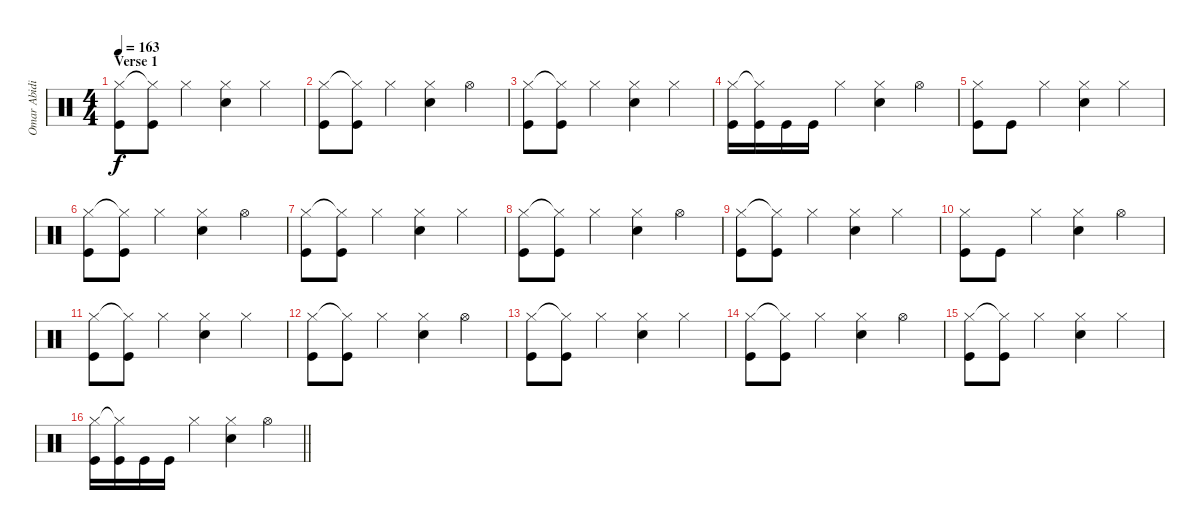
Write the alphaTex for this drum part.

\track ("Omar Abidi" "Omar Abidi") {instrument percussion}
\staff {score}
\articulation defaults
\ts (4 4)
\section ("" "Verse 1")
\tempo 163
\clef neutral
\ks c
("Hi-Hat (closed)" "Kick (hit)").8{dy f} ("Hi-Hat (closed)"{t} "Kick (hit)").8 "Hi-Hat (closed)".4 ("Hi-Hat (closed)" "Snare (hit) 2").4 "Hi-Hat (closed)".4 |
("Hi-Hat (closed)" "Kick (hit)").8 ("Hi-Hat (closed)"{t} "Kick (hit)").8 "Hi-Hat (closed)".4 ("Hi-Hat (closed)" "Snare (hit) 2").4 "Hi-Hat (open)".4 |
("Hi-Hat (closed)" "Kick (hit)").8 ("Hi-Hat (closed)"{t} "Kick (hit)").8 "Hi-Hat (closed)".4 ("Hi-Hat (closed)" "Snare (hit) 2").4 "Hi-Hat (closed)".4 |
("Hi-Hat (closed)" "Kick (hit)").16 ("Hi-Hat (closed)"{t} "Kick (hit)").16 "Kick (hit)".16 "Kick (hit)".16 "Hi-Hat (closed)".4 ("Hi-Hat (closed)" "Snare (hit) 2").4 "Hi-Hat (open)".4 |
("Hi-Hat (closed)" "Kick (hit)").8 "Kick (hit)".8 "Hi-Hat (closed)".4 ("Hi-Hat (closed)" "Snare (hit) 2").4 "Hi-Hat (closed)".4 |
("Hi-Hat (closed)" "Kick (hit)").8 ("Hi-Hat (closed)"{t} "Kick (hit)").8 "Hi-Hat (closed)".4 ("Hi-Hat (closed)" "Snare (hit) 2").4 "Hi-Hat (open)".4 |
("Hi-Hat (closed)" "Kick (hit)").8 ("Hi-Hat (closed)"{t} "Kick (hit)").8 "Hi-Hat (closed)".4 ("Hi-Hat (closed)" "Snare (hit) 2").4 "Hi-Hat (closed)".4 |
("Hi-Hat (closed)" "Kick (hit)").8 ("Hi-Hat (closed)"{t} "Kick (hit)").8 "Hi-Hat (closed)".4 ("Hi-Hat (closed)" "Snare (hit) 2").4 "Hi-Hat (open)".4 |
("Hi-Hat (closed)" "Kick (hit)").8 ("Hi-Hat (closed)"{t} "Kick (hit)").8 "Hi-Hat (closed)".4 ("Hi-Hat (closed)" "Snare (hit) 2").4 "Hi-Hat (closed)".4 |
("Hi-Hat (closed)" "Kick (hit)").8 "Kick (hit)".8 "Hi-Hat (closed)".4 ("Hi-Hat (closed)" "Snare (hit) 2").4 "Hi-Hat (open)".4 |
("Hi-Hat (closed)" "Kick (hit)").8 ("Hi-Hat (closed)"{t} "Kick (hit)").8 "Hi-Hat (closed)".4 ("Hi-Hat (closed)" "Snare (hit) 2").4 "Hi-Hat (closed)".4 |
("Hi-Hat (closed)" "Kick (hit)").8 ("Hi-Hat (closed)"{t} "Kick (hit)").8 "Hi-Hat (closed)".4 ("Hi-Hat (closed)" "Snare (hit) 2").4 "Hi-Hat (open)".4 |
("Hi-Hat (closed)" "Kick (hit)").8 ("Hi-Hat (closed)"{t} "Kick (hit)").8 "Hi-Hat (closed)".4 ("Hi-Hat (closed)" "Snare (hit) 2").4 "Hi-Hat (closed)".4 |
("Hi-Hat (closed)" "Kick (hit)").8 ("Hi-Hat (closed)"{t} "Kick (hit)").8 "Hi-Hat (closed)".4 ("Hi-Hat (closed)" "Snare (hit) 2").4 "Hi-Hat (open)".4 |
("Hi-Hat (closed)" "Kick (hit)").8 ("Hi-Hat (closed)"{t} "Kick (hit)").8 "Hi-Hat (closed)".4 ("Hi-Hat (closed)" "Snare (hit) 2").4 "Hi-Hat (closed)".4 |
\barLineRight lightlight
("Hi-Hat (closed)" "Kick (hit)").16 ("Hi-Hat (closed)"{t} "Kick (hit)").16 "Kick (hit)".16 "Kick (hit)".16 "Hi-Hat (closed)".4 ("Hi-Hat (closed)" "Snare (hit) 2").4 "Hi-Hat (open)".4
